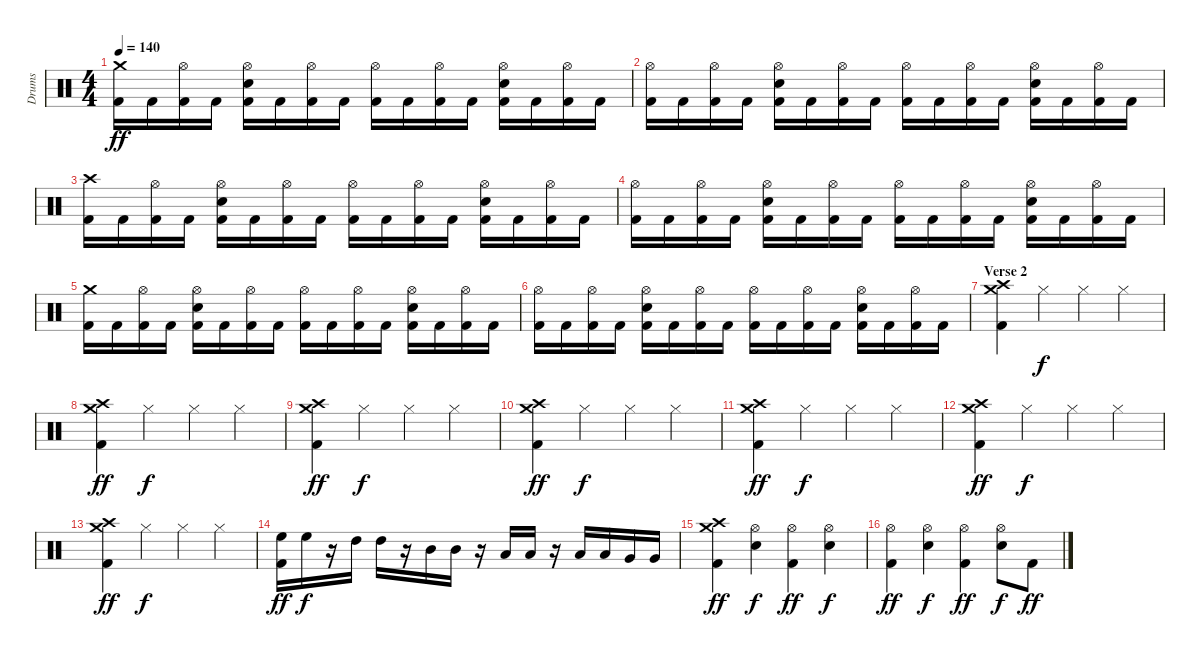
\track ("Drums" "Drums") {instrument percussion}
\staff {score}
\articulation defaults
\ts (4 4)
\tempo 140
\clef neutral
\ks c
("Crash medium (hit)" "Kick (hit) 2").16{dy ff} "Kick (hit) 2".16 ("Hi-Hat (open)" "Kick (hit) 2").16 "Kick (hit) 2".16 ("Hi-Hat (open)" "Electric Snare (hit)" "Kick (hit) 2").16 "Kick (hit) 2".16 ("Hi-Hat (open)" "Kick (hit) 2").16 "Kick (hit) 2".16 ("Hi-Hat (open)" "Kick (hit) 2").16 "Kick (hit) 2".16 ("Hi-Hat (open)" "Kick (hit) 2").16 "Kick (hit) 2".16 ("Hi-Hat (open)" "Electric Snare (hit)" "Kick (hit) 2").16 "Kick (hit) 2".16 ("Hi-Hat (open)" "Kick (hit) 2").16 "Kick (hit) 2".16 |
("Hi-Hat (open)" "Kick (hit) 2").16 "Kick (hit) 2".16 ("Hi-Hat (open)" "Kick (hit) 2").16 "Kick (hit) 2".16 ("Hi-Hat (open)" "Electric Snare (hit)" "Kick (hit) 2").16 "Kick (hit) 2".16 ("Hi-Hat (open)" "Kick (hit) 2").16 "Kick (hit) 2".16 ("Hi-Hat (open)" "Kick (hit) 2").16 "Kick (hit) 2".16 ("Hi-Hat (open)" "Kick (hit) 2").16 "Kick (hit) 2".16 ("Hi-Hat (open)" "Electric Snare (hit)" "Kick (hit) 2").16 "Kick (hit) 2".16 ("Hi-Hat (open)" "Kick (hit) 2").16 "Kick (hit) 2".16 |
("Crash high (hit)" "Kick (hit) 2").16 "Kick (hit) 2".16 ("Hi-Hat (open)" "Kick (hit) 2").16 "Kick (hit) 2".16 ("Hi-Hat (open)" "Electric Snare (hit)" "Kick (hit) 2").16 "Kick (hit) 2".16 ("Hi-Hat (open)" "Kick (hit) 2").16 "Kick (hit) 2".16 ("Hi-Hat (open)" "Kick (hit) 2").16 "Kick (hit) 2".16 ("Hi-Hat (open)" "Kick (hit) 2").16 "Kick (hit) 2".16 ("Hi-Hat (open)" "Electric Snare (hit)" "Kick (hit) 2").16 "Kick (hit) 2".16 ("Hi-Hat (open)" "Kick (hit) 2").16 "Kick (hit) 2".16 |
("Hi-Hat (open)" "Kick (hit) 2").16 "Kick (hit) 2".16 ("Hi-Hat (open)" "Kick (hit) 2").16 "Kick (hit) 2".16 ("Hi-Hat (open)" "Electric Snare (hit)" "Kick (hit) 2").16 "Kick (hit) 2".16 ("Hi-Hat (open)" "Kick (hit) 2").16 "Kick (hit) 2".16 ("Hi-Hat (open)" "Kick (hit) 2").16 "Kick (hit) 2".16 ("Hi-Hat (open)" "Kick (hit) 2").16 "Kick (hit) 2".16 ("Hi-Hat (open)" "Electric Snare (hit)" "Kick (hit) 2").16 "Kick (hit) 2".16 ("Hi-Hat (open)" "Kick (hit) 2").16 "Kick (hit) 2".16 |
("Crash medium (hit)" "Kick (hit) 2").16 "Kick (hit) 2".16 ("Hi-Hat (open)" "Kick (hit) 2").16 "Kick (hit) 2".16 ("Hi-Hat (open)" "Electric Snare (hit)" "Kick (hit) 2").16 "Kick (hit) 2".16 ("Hi-Hat (open)" "Kick (hit) 2").16 "Kick (hit) 2".16 ("Hi-Hat (open)" "Kick (hit) 2").16 "Kick (hit) 2".16 ("Hi-Hat (open)" "Kick (hit) 2").16 "Kick (hit) 2".16 ("Hi-Hat (open)" "Electric Snare (hit)" "Kick (hit) 2").16 "Kick (hit) 2".16 ("Hi-Hat (open)" "Kick (hit) 2").16 "Kick (hit) 2".16 |
("Hi-Hat (open)" "Kick (hit) 2").16 "Kick (hit) 2".16 ("Hi-Hat (open)" "Kick (hit) 2").16 "Kick (hit) 2".16 ("Hi-Hat (open)" "Electric Snare (hit)" "Kick (hit) 2").16 "Kick (hit) 2".16 ("Hi-Hat (open)" "Kick (hit) 2").16 "Kick (hit) 2".16 ("Hi-Hat (open)" "Kick (hit) 2").16 "Kick (hit) 2".16 ("Hi-Hat (open)" "Kick (hit) 2").16 "Kick (hit) 2".16 ("Hi-Hat (open)" "Electric Snare (hit)" "Kick (hit) 2").16 "Kick (hit) 2".16 ("Hi-Hat (open)" "Kick (hit) 2").16 "Kick (hit) 2".16 |
\section ("" "Verse 2")
("Crash medium (hit)" "Crash high (hit)" "Kick (hit) 2").4 "Hi-Hat (closed)".4{dy f} "Hi-Hat (closed)".4 "Hi-Hat (closed)".4 |
("Crash medium (hit)" "Crash high (hit)" "Kick (hit) 2").4{dy ff} "Hi-Hat (closed)".4{dy f} "Hi-Hat (closed)".4 "Hi-Hat (closed)".4 |
("Crash medium (hit)" "Crash high (hit)" "Kick (hit) 2").4{dy ff} "Hi-Hat (closed)".4{dy f} "Hi-Hat (closed)".4 "Hi-Hat (closed)".4 |
("Crash medium (hit)" "Crash high (hit)" "Kick (hit) 2").4{dy ff} "Hi-Hat (closed)".4{dy f} "Hi-Hat (closed)".4 "Hi-Hat (closed)".4 |
("Crash medium (hit)" "Crash high (hit)" "Kick (hit) 2").4{dy ff} "Hi-Hat (closed)".4{dy f} "Hi-Hat (closed)".4 "Hi-Hat (closed)".4 |
("Crash medium (hit)" "Crash high (hit)" "Kick (hit) 2").4{dy ff} "Hi-Hat (closed)".4{dy f} "Hi-Hat (closed)".4 "Hi-Hat (closed)".4 |
("Crash medium (hit)" "Crash high (hit)" "Kick (hit) 2").4{dy ff} "Hi-Hat (closed)".4{dy f} "Hi-Hat (closed)".4 "Hi-Hat (closed)".4 |
("High Floor Tom (hit)" "Kick (hit) 2").16{dy ff} "High Floor Tom (hit)".16{dy f} r.16 "High Tom (hit)".16 "High Tom (hit)".16 r.16 "Mid Tom (hit)".16 "Mid Tom (hit)".16 r.16 "Low Tom (hit)".16 "Low Tom (hit)".16 r.16 "Low Tom (hit)".16 "Low Tom (hit)".16 "Very Low Tom (hit)".16 "Very Low Tom (hit)".16 |
("Crash high (hit)" "Crash medium (hit)" "Kick (hit) 2").4{dy ff} ("Hi-Hat (open)" "Electric Snare (hit)").4{dy f} ("Hi-Hat (open)" "Kick (hit) 2").4{dy ff} ("Hi-Hat (open)" "Electric Snare (hit)").4{dy f} |
("Hi-Hat (open)" "Kick (hit) 2").4{dy ff} ("Hi-Hat (open)" "Electric Snare (hit)").4{dy f} ("Hi-Hat (open)" "Kick (hit) 2").4{dy ff} ("Hi-Hat (open)" "Electric Snare (hit)").8{dy f} "Kick (hit) 2".8{dy ff}
